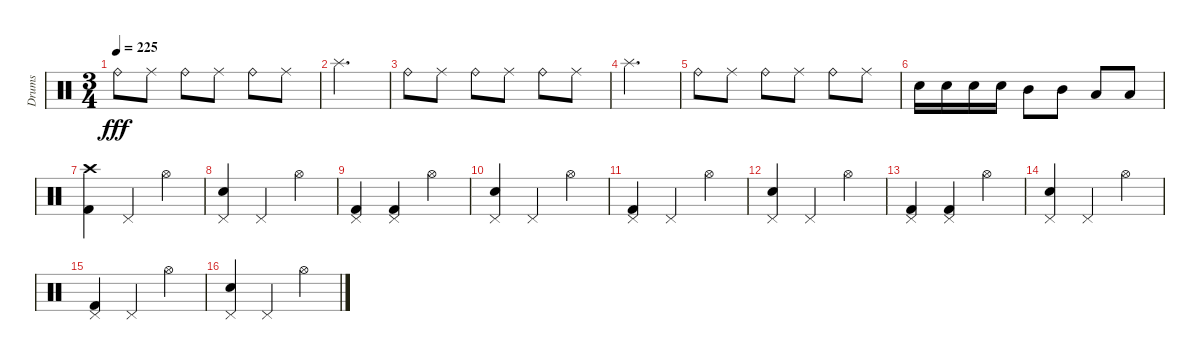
\track ("Drums" "Drums") {instrument percussion}
\staff {score}
\articulation defaults
\ts (3 4)
\tempo 225
\clef neutral
\ks c "Ride (bell)".8{dy fff} "Ride (middle)".8 "Ride (bell)".8 "Ride (middle)".8 "Ride (bell)".8 "Ride (middle)".8
|
"Splash (hit)".2{d} |
"Ride (bell)".8 "Ride (middle)".8 "Ride (bell)".8 "Ride (middle)".8 "Ride (bell)".8 "Ride (middle)".8 |
"Splash (hit)".2{d} |
"Ride (bell)".8 "Ride (middle)".8 "Ride (bell)".8 "Ride (middle)".8 "Ride (bell)".8 "Ride (middle)".8 |
"Electric Snare (hit)".16 "Electric Snare (hit)".16 "Electric Snare (hit)".16 "Electric Snare (hit)".16 "Mid Tom (hit)".8 "Mid Tom (hit)".8 "Low Tom (hit)".8 "Low Tom (hit)".8 |
("Crash high (hit)" "Kick (hit) 2").4{volume 10} "Pedal Hi-Hat (hit)".4 "Hi-Hat (open)".4 |
("Pedal Hi-Hat (hit)" "Electric Snare (hit)").4 "Pedal Hi-Hat (hit)".4 "Hi-Hat (open)".4 |
("Pedal Hi-Hat (hit)" "Kick (hit) 2").4 ("Pedal Hi-Hat (hit)" "Kick (hit) 2").4 "Hi-Hat (open)".4 |
("Pedal Hi-Hat (hit)" "Electric Snare (hit)").4 "Pedal Hi-Hat (hit)".4 "Hi-Hat (open)".4 |
("Pedal Hi-Hat (hit)" "Kick (hit) 2").4 "Pedal Hi-Hat (hit)".4 "Hi-Hat (open)".4 |
("Pedal Hi-Hat (hit)" "Electric Snare (hit)").4 "Pedal Hi-Hat (hit)".4 "Hi-Hat (open)".4 |
("Pedal Hi-Hat (hit)" "Kick (hit) 2").4 ("Pedal Hi-Hat (hit)" "Kick (hit) 2").4 "Hi-Hat (open)".4 |
("Pedal Hi-Hat (hit)" "Electric Snare (hit)").4 "Pedal Hi-Hat (hit)".4 "Hi-Hat (open)".4 |
("Pedal Hi-Hat (hit)" "Kick (hit) 2").4 "Pedal Hi-Hat (hit)".4 "Hi-Hat (open)".4 |
("Pedal Hi-Hat (hit)" "Electric Snare (hit)").4 "Pedal Hi-Hat (hit)".4 "Hi-Hat (open)".4
